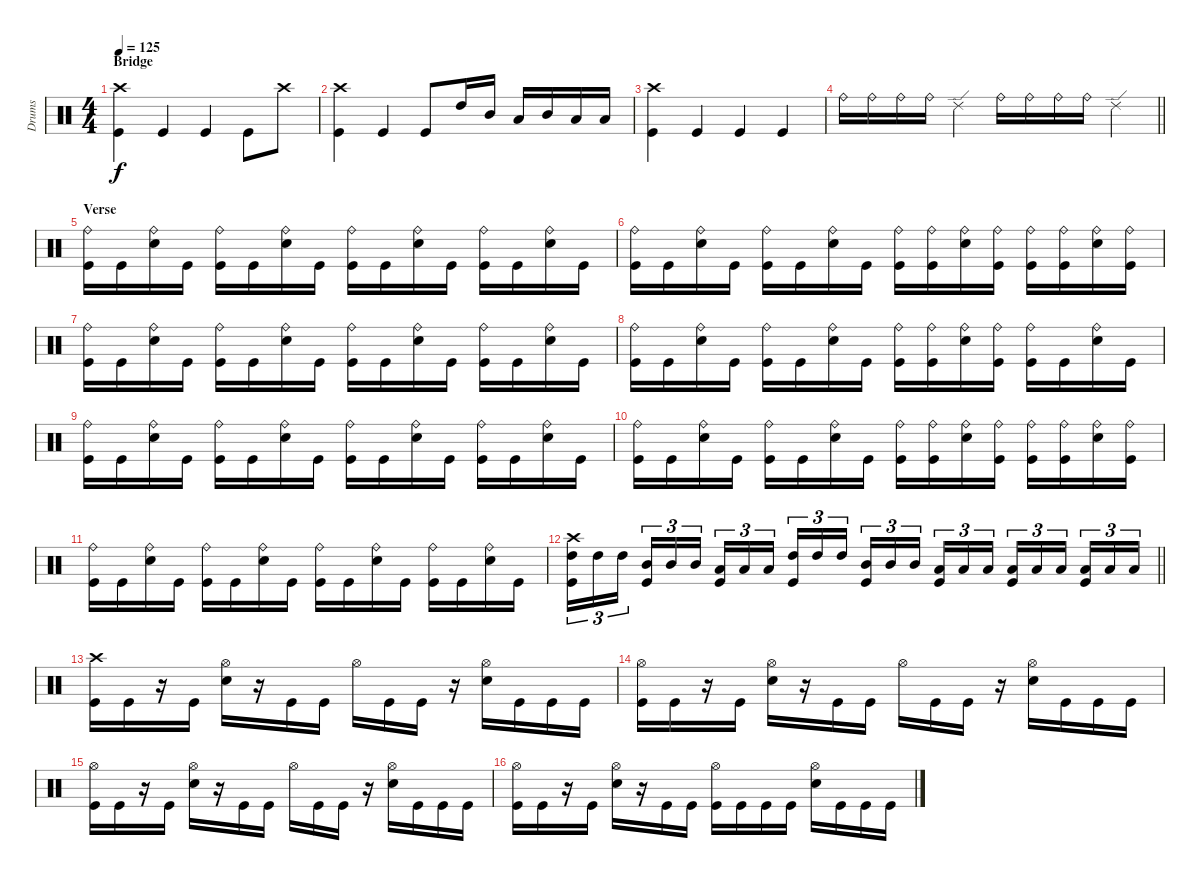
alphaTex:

\track ("Drums " "Drums ") {instrument percussion}
\staff {score}
\articulation defaults
\ts (4 4)
\section ("" "Bridge ")
\tempo 125
\clef neutral
\ks c
("Crash high (hit)" "Kick (hit)").4{dy f} "Kick (hit)".4 "Kick (hit)".4 "Kick (hit)".8 "Crash high (hit)".8 |
("Crash high (hit)" "Kick (hit)").4 "Kick (hit)".4 "Kick (hit)".8 "High Tom (hit)".16 "Mid Tom (hit)".16 "Low Tom (hit)".16 "Mid Tom (hit)".16 "Low Tom (hit)".16 "Low Floor Tom (hit)".16 |
("Crash high (hit)" "Kick (hit)").4 "Kick (hit)".4 "Kick (hit)".4 "Kick (hit)".4 |
\barLineRight lightlight "Ride (bell)".16 "Ride (bell)".16 "Ride (bell)".16 "Ride (bell)".16 "Ride (edge) 2".4 "Ride (bell)".16 "Ride (bell)".16 "Ride (bell)".16 "Ride (bell)".16 "Ride (edge) 2".4
|
\section ("" "Verse")
("Ride (bell)" "Kick (hit)").16 "Kick (hit)".16 ("Ride (bell)" "Electric Snare (hit)").16 "Kick (hit)".16 ("Ride (bell)" "Kick (hit)").16 "Kick (hit)".16 ("Ride (bell)" "Electric Snare (hit)").16 "Kick (hit)".16 ("Ride (bell)" "Kick (hit)").16 "Kick (hit)".16 ("Ride (bell)" "Electric Snare (hit)").16 "Kick (hit)".16 ("Ride (bell)" "Kick (hit)").16 "Kick (hit)".16 ("Ride (bell)" "Electric Snare (hit)").16 "Kick (hit)".16 |
("Ride (bell)" "Kick (hit)").16 "Kick (hit)".16 ("Ride (bell)" "Electric Snare (hit)").16 "Kick (hit)".16 ("Ride (bell)" "Kick (hit)").16 "Kick (hit)".16 ("Ride (bell)" "Electric Snare (hit)").16 "Kick (hit)".16 ("Ride (bell)" "Kick (hit)").16 ("Ride (bell)" "Kick (hit)").16 ("Ride (bell)" "Electric Snare (hit)").16 ("Ride (bell)" "Kick (hit)").16 ("Ride (bell)" "Kick (hit)").16 ("Ride (bell)" "Kick (hit)").16 ("Ride (bell)" "Electric Snare (hit)").16 ("Ride (bell)" "Kick (hit)").16 |
("Ride (bell)" "Kick (hit)").16 "Kick (hit)".16 ("Ride (bell)" "Electric Snare (hit)").16 "Kick (hit)".16 ("Ride (bell)" "Kick (hit)").16 "Kick (hit)".16 ("Ride (bell)" "Electric Snare (hit)").16 "Kick (hit)".16 ("Ride (bell)" "Kick (hit)").16 "Kick (hit)".16 ("Ride (bell)" "Electric Snare (hit)").16 "Kick (hit)".16 ("Ride (bell)" "Kick (hit)").16 "Kick (hit)".16 ("Ride (bell)" "Electric Snare (hit)").16 "Kick (hit)".16 |
("Ride (bell)" "Kick (hit)").16 "Kick (hit)".16 ("Ride (bell)" "Electric Snare (hit)").16 "Kick (hit)".16 ("Ride (bell)" "Kick (hit)").16 "Kick (hit)".16 ("Ride (bell)" "Electric Snare (hit)").16 "Kick (hit)".16 ("Ride (bell)" "Kick (hit)").16 ("Ride (bell)" "Kick (hit)").16 ("Ride (bell)" "Electric Snare (hit)").16 ("Ride (bell)" "Kick (hit)").16 ("Ride (bell)" "Kick (hit)").16 "Kick (hit)".16 ("Ride (bell)" "Electric Snare (hit)").16 "Kick (hit)".16 |
("Ride (bell)" "Kick (hit)").16 "Kick (hit)".16 ("Ride (bell)" "Electric Snare (hit)").16 "Kick (hit)".16 ("Ride (bell)" "Kick (hit)").16 "Kick (hit)".16 ("Ride (bell)" "Electric Snare (hit)").16 "Kick (hit)".16 ("Ride (bell)" "Kick (hit)").16 "Kick (hit)".16 ("Ride (bell)" "Electric Snare (hit)").16 "Kick (hit)".16 ("Ride (bell)" "Kick (hit)").16 "Kick (hit)".16 ("Ride (bell)" "Electric Snare (hit)").16 "Kick (hit)".16 |
("Ride (bell)" "Kick (hit)").16 "Kick (hit)".16 ("Ride (bell)" "Electric Snare (hit)").16 "Kick (hit)".16 ("Ride (bell)" "Kick (hit)").16 "Kick (hit)".16 ("Ride (bell)" "Electric Snare (hit)").16 "Kick (hit)".16 ("Ride (bell)" "Kick (hit)").16 ("Ride (bell)" "Kick (hit)").16 ("Ride (bell)" "Electric Snare (hit)").16 ("Ride (bell)" "Kick (hit)").16 ("Ride (bell)" "Kick (hit)").16 ("Ride (bell)" "Kick (hit)").16 ("Ride (bell)" "Electric Snare (hit)").16 ("Ride (bell)" "Kick (hit)").16 |
("Ride (bell)" "Kick (hit)").16 "Kick (hit)".16 ("Ride (bell)" "Electric Snare (hit)").16 "Kick (hit)".16 ("Ride (bell)" "Kick (hit)").16 "Kick (hit)".16 ("Ride (bell)" "Electric Snare (hit)").16 "Kick (hit)".16 ("Ride (bell)" "Kick (hit)").16 "Kick (hit)".16 ("Ride (bell)" "Electric Snare (hit)").16 "Kick (hit)".16 ("Ride (bell)" "Kick (hit)").16 "Kick (hit)".16 ("Ride (bell)" "Electric Snare (hit)").16 "Kick (hit)".16 |
\barLineRight lightlight
("Crash high (hit)" "High Tom (hit)" "Kick (hit)").16{tu (3 2)} "High Tom (hit)".16{tu (3 2)} "High Tom (hit)".16{tu (3 2) beam splitsecondary} ("Mid Tom (hit)" "Kick (hit)").16{tu (3 2)} "Mid Tom (hit)".16{tu (3 2)} "Mid Tom (hit)".16{tu (3 2)} ("Low Tom (hit)" "Kick (hit)").16{tu (3 2)} "Low Tom (hit)".16{tu (3 2)} "Low Tom (hit)".16{tu (3 2) beam splitsecondary} ("High Tom (hit)" "Kick (hit)").16{tu (3 2)} "High Tom (hit)".16{tu (3 2)} "High Tom (hit)".16{tu (3 2)} ("Mid Tom (hit)" "Kick (hit)").16{tu (3 2)} "Mid Tom (hit)".16{tu (3 2)} "Mid Tom (hit)".16{tu (3 2) beam splitsecondary} ("Low Tom (hit)" "Kick (hit)").16{tu (3 2)} "Low Tom (hit)".16{tu (3 2)} "Low Tom (hit)".16{tu (3 2)} ("Low Floor Tom (hit)" "Kick (hit)").16{tu (3 2)} "Low Floor Tom (hit)".16{tu (3 2)} "Low Floor Tom (hit)".16{tu (3 2) beam splitsecondary} ("Low Floor Tom (hit)" "Kick (hit)").16{tu (3 2)} "Low Floor Tom (hit)".16{tu (3 2)} "Low Floor Tom (hit)".16{tu (3 2)} |
\section ("" "")
("Crash high (hit)" "Kick (hit)").16 "Kick (hit)".16 r.16 "Kick (hit)".16 ("Hi-Hat (open)" "Electric Snare (hit)").16 r.16 "Kick (hit)".16 "Kick (hit)".16 "Hi-Hat (open)".16 "Kick (hit)".16 "Kick (hit)".16 r.16 ("Hi-Hat (open)" "Electric Snare (hit)").16 "Kick (hit)".16 "Kick (hit)".16 "Kick (hit)".16 |
("Hi-Hat (open)" "Kick (hit)").16 "Kick (hit)".16 r.16 "Kick (hit)".16 ("Hi-Hat (open)" "Electric Snare (hit)").16 r.16 "Kick (hit)".16 "Kick (hit)".16 "Hi-Hat (open)".16 "Kick (hit)".16 "Kick (hit)".16 r.16 ("Hi-Hat (open)" "Electric Snare (hit)").16 "Kick (hit)".16 "Kick (hit)".16 "Kick (hit)".16 |
("Hi-Hat (open)" "Kick (hit)").16 "Kick (hit)".16 r.16 "Kick (hit)".16 ("Hi-Hat (open)" "Electric Snare (hit)").16 r.16 "Kick (hit)".16 "Kick (hit)".16 "Hi-Hat (open)".16 "Kick (hit)".16 "Kick (hit)".16 r.16 ("Hi-Hat (open)" "Electric Snare (hit)").16 "Kick (hit)".16 "Kick (hit)".16 "Kick (hit)".16 |
("Hi-Hat (open)" "Kick (hit)").16 "Kick (hit)".16 r.16 "Kick (hit)".16 ("Hi-Hat (open)" "Electric Snare (hit)").16 r.16 "Kick (hit)".16 "Kick (hit)".16 ("Hi-Hat (open)" "Kick (hit)").16 "Kick (hit)".16 "Kick (hit)".16 "Kick (hit)".16 ("Hi-Hat (open)" "Electric Snare (hit)").16 "Kick (hit)".16 "Kick (hit)".16 "Kick (hit)".16
